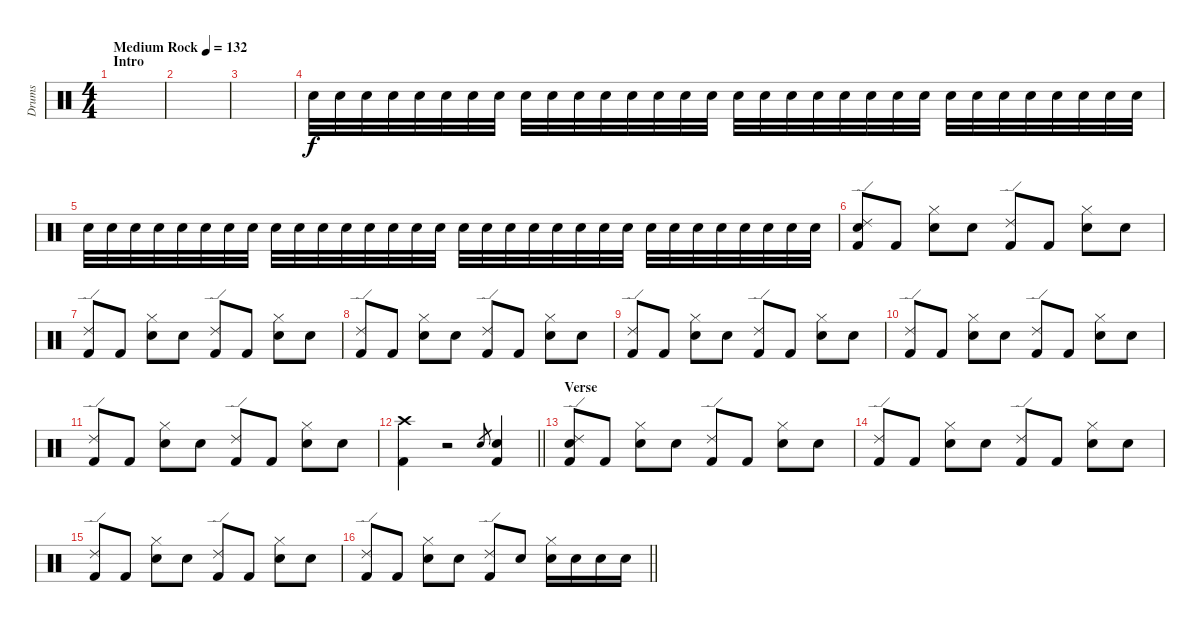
\track ("Drums" "Drums") {instrument percussion}
\staff {score}
\articulation defaults
\ts (4 4)
\section ("" "Intro")
\tempo (132 "Medium Rock")
\clef neutral
\ks c
|
|
|
"Snare (hit) 2".32{volume 7} "Snare (hit) 2".32 "Snare (hit) 2".32 "Snare (hit) 2".32 "Snare (hit) 2".32 "Snare (hit) 2".32 "Snare (hit) 2".32 "Snare (hit) 2".32 "Snare (hit) 2".32 "Snare (hit) 2".32 "Snare (hit) 2".32 "Snare (hit) 2".32 "Snare (hit) 2".32 "Snare (hit) 2".32 "Snare (hit) 2".32 "Snare (hit) 2".32 "Snare (hit) 2".32 "Snare (hit) 2".32 "Snare (hit) 2".32 "Snare (hit) 2".32 "Snare (hit) 2".32 "Snare (hit) 2".32 "Snare (hit) 2".32 "Snare (hit) 2".32 "Snare (hit) 2".32 "Snare (hit) 2".32 "Snare (hit) 2".32 "Snare (hit) 2".32 "Snare (hit) 2".32 "Snare (hit) 2".32 "Snare (hit) 2".32 "Snare (hit) 2".32 |
"Snare (hit) 2".32 "Snare (hit) 2".32 "Snare (hit) 2".32 "Snare (hit) 2".32 "Snare (hit) 2".32 "Snare (hit) 2".32 "Snare (hit) 2".32 "Snare (hit) 2".32 "Snare (hit) 2".32 "Snare (hit) 2".32 "Snare (hit) 2".32 "Snare (hit) 2".32 "Snare (hit) 2".32 "Snare (hit) 2".32 "Snare (hit) 2".32 "Snare (hit) 2".32 "Snare (hit) 2".32 "Snare (hit) 2".32 "Snare (hit) 2".32 "Snare (hit) 2".32 "Snare (hit) 2".32 "Snare (hit) 2".32 "Snare (hit) 2".32 "Snare (hit) 2".32 "Snare (hit) 2".32 "Snare (hit) 2".32 "Snare (hit) 2".32 "Snare (hit) 2".32 "Snare (hit) 2".32 "Snare (hit) 2".32 "Snare (hit) 2".32 "Snare (hit) 2".32 |
("Ride (edge) 2" "Snare (hit) 2" "Kick (hit) 2").8{volume 9} "Kick (hit) 2".8 ("Hi-Hat (closed)" "Snare (hit) 2").8 "Snare (hit) 2".8 ("Ride (edge) 2" "Kick (hit) 2").8 "Kick (hit) 2".8 ("Hi-Hat (closed)" "Snare (hit) 2").8 "Snare (hit) 2".8 |
("Ride (edge) 2" "Kick (hit) 2").8 "Kick (hit) 2".8 ("Hi-Hat (closed)" "Snare (hit) 2").8 "Snare (hit) 2".8 ("Ride (edge) 2" "Kick (hit) 2").8 "Kick (hit) 2".8 ("Hi-Hat (closed)" "Snare (hit) 2").8 "Snare (hit) 2".8 |
("Ride (edge) 2" "Kick (hit) 2").8 "Kick (hit) 2".8 ("Hi-Hat (closed)" "Snare (hit) 2").8 "Snare (hit) 2".8 ("Ride (edge) 2" "Kick (hit) 2").8 "Kick (hit) 2".8 ("Hi-Hat (closed)" "Snare (hit) 2").8 "Snare (hit) 2".8 |
("Ride (edge) 2" "Kick (hit) 2").8 "Kick (hit) 2".8 ("Hi-Hat (closed)" "Snare (hit) 2").8 "Snare (hit) 2".8 ("Ride (edge) 2" "Kick (hit) 2").8 "Kick (hit) 2".8 ("Hi-Hat (closed)" "Snare (hit) 2").8 "Snare (hit) 2".8 |
("Ride (edge) 2" "Kick (hit) 2").8 "Kick (hit) 2".8 ("Hi-Hat (closed)" "Snare (hit) 2").8 "Snare (hit) 2".8 ("Ride (edge) 2" "Kick (hit) 2").8 "Kick (hit) 2".8 ("Hi-Hat (closed)" "Snare (hit) 2").8 "Snare (hit) 2".8 |
("Ride (edge) 2" "Kick (hit) 2").8 "Kick (hit) 2".8 ("Hi-Hat (closed)" "Snare (hit) 2").8 "Snare (hit) 2".8 ("Ride (edge) 2" "Kick (hit) 2").8 "Kick (hit) 2".8 ("Hi-Hat (closed)" "Snare (hit) 2").8 "Snare (hit) 2".8 |
\barLineRight lightlight
("Crash high (hit)" "Kick (hit) 2").4{volume 9} r.2 "Snare (hit) 2".8{gr} ("Snare (hit) 2" "Kick (hit) 2").4 |
\section ("" "Verse")
("Ride (edge) 2" "Snare (hit) 2" "Kick (hit) 2").8{volume 9} "Kick (hit) 2".8 ("Hi-Hat (closed)" "Snare (hit) 2").8 "Snare (hit) 2".8 ("Ride (edge) 2" "Kick (hit) 2").8 "Kick (hit) 2".8 ("Hi-Hat (closed)" "Snare (hit) 2").8 "Snare (hit) 2".8 |
("Ride (edge) 2" "Kick (hit) 2").8 "Kick (hit) 2".8 ("Hi-Hat (closed)" "Snare (hit) 2").8 "Snare (hit) 2".8 ("Ride (edge) 2" "Kick (hit) 2").8 "Kick (hit) 2".8 ("Hi-Hat (closed)" "Snare (hit) 2").8 "Snare (hit) 2".8 |
("Ride (edge) 2" "Kick (hit) 2").8 "Kick (hit) 2".8 ("Hi-Hat (closed)" "Snare (hit) 2").8 "Snare (hit) 2".8 ("Ride (edge) 2" "Kick (hit) 2").8 "Kick (hit) 2".8 ("Hi-Hat (closed)" "Snare (hit) 2").8 "Snare (hit) 2".8 |
\barLineRight lightlight
("Ride (edge) 2" "Kick (hit) 2").8 "Kick (hit) 2".8 ("Hi-Hat (closed)" "Snare (hit) 2").8 "Snare (hit) 2".8 ("Ride (edge) 2" "Kick (hit) 2").8 "Snare (hit) 2".8 ("Hi-Hat (closed)" "Snare (hit) 2").16 "Snare (hit) 2".16 "Snare (hit) 2".16 "Snare (hit) 2".16
